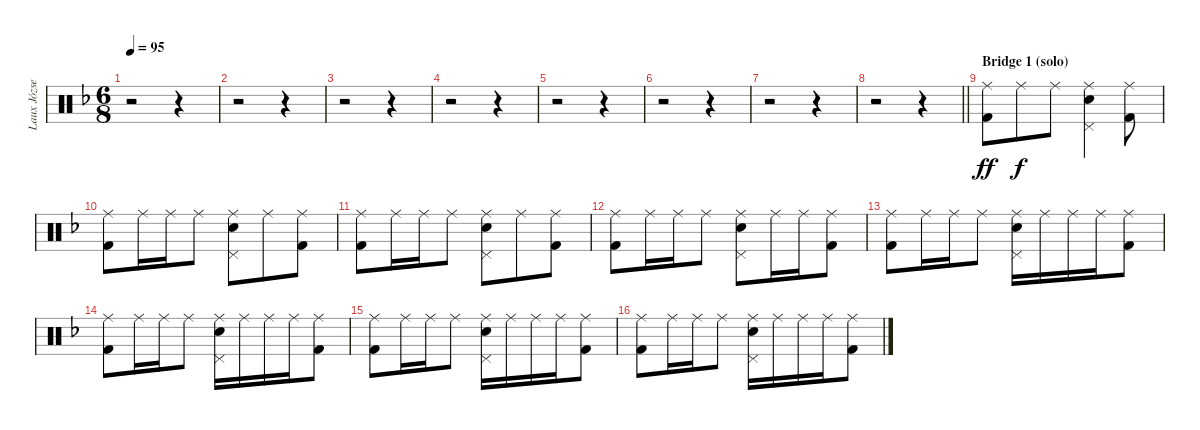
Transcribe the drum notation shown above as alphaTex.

\track ("Laux József" "Laux Józse") {instrument percussion}
\staff {score}
\articulation defaults
\ts (6 8)
\tempo 95
\clef neutral
\ks dminor
r.2{dy ff} r.4 |
r.2 r.4 |
r.2 r.4 |
r.2 r.4 |
r.2 r.4 |
r.2 r.4 |
r.2 r.4 |
\barLineRight lightlight
r.2 r.4 |
\section ("" "Bridge 1 (solo)")
("Ride (middle)" "Kick (hit) 2").8 "Ride (middle)".8{dy f} "Ride (middle)".8 ("Pedal Hi-Hat (hit)" "Ride (middle)" "Electric Snare (hit)").4 ("Ride (middle)" "Kick (hit) 2").8 |
("Ride (middle)" "Kick (hit) 2").8 "Ride (middle)".16 "Ride (middle)".16 "Ride (middle)".8 ("Pedal Hi-Hat (hit)" "Ride (middle)" "Electric Snare (hit)").8 "Ride (middle)".8 ("Ride (middle)" "Kick (hit) 2").8 |
("Ride (middle)" "Kick (hit) 2").8 "Ride (middle)".16 "Ride (middle)".16 "Ride (middle)".8 ("Pedal Hi-Hat (hit)" "Ride (middle)" "Electric Snare (hit)").8 "Ride (middle)".8 ("Ride (middle)" "Kick (hit) 2").8 |
("Ride (middle)" "Kick (hit) 2").8 "Ride (middle)".16 "Ride (middle)".16 "Ride (middle)".8 ("Pedal Hi-Hat (hit)" "Ride (middle)" "Electric Snare (hit)").8 "Ride (middle)".16 "Ride (middle)".16 ("Ride (middle)" "Kick (hit) 2").8 |
("Ride (middle)" "Kick (hit) 2").8 "Ride (middle)".16 "Ride (middle)".16 "Ride (middle)".8 ("Pedal Hi-Hat (hit)" "Ride (middle)" "Electric Snare (hit)").16 "Ride (middle)".16 "Ride (middle)".16 "Ride (middle)".16 ("Ride (middle)" "Kick (hit) 2").8 |
("Ride (middle)" "Kick (hit) 2").8 "Ride (middle)".16 "Ride (middle)".16 "Ride (middle)".8 ("Pedal Hi-Hat (hit)" "Ride (middle)" "Electric Snare (hit)").16 "Ride (middle)".16 "Ride (middle)".16 "Ride (middle)".16 ("Ride (middle)" "Kick (hit) 2").8 |
("Ride (middle)" "Kick (hit) 2").8 "Ride (middle)".16 "Ride (middle)".16 "Ride (middle)".8 ("Pedal Hi-Hat (hit)" "Ride (middle)" "Electric Snare (hit)").16 "Ride (middle)".16 "Ride (middle)".16 "Ride (middle)".16 ("Ride (middle)" "Kick (hit) 2").8 |
("Ride (middle)" "Kick (hit) 2").8 "Ride (middle)".16 "Ride (middle)".16 "Ride (middle)".8 ("Pedal Hi-Hat (hit)" "Ride (middle)" "Electric Snare (hit)").16 "Ride (middle)".16 "Ride (middle)".16 "Ride (middle)".16 ("Ride (middle)" "Kick (hit) 2").8
